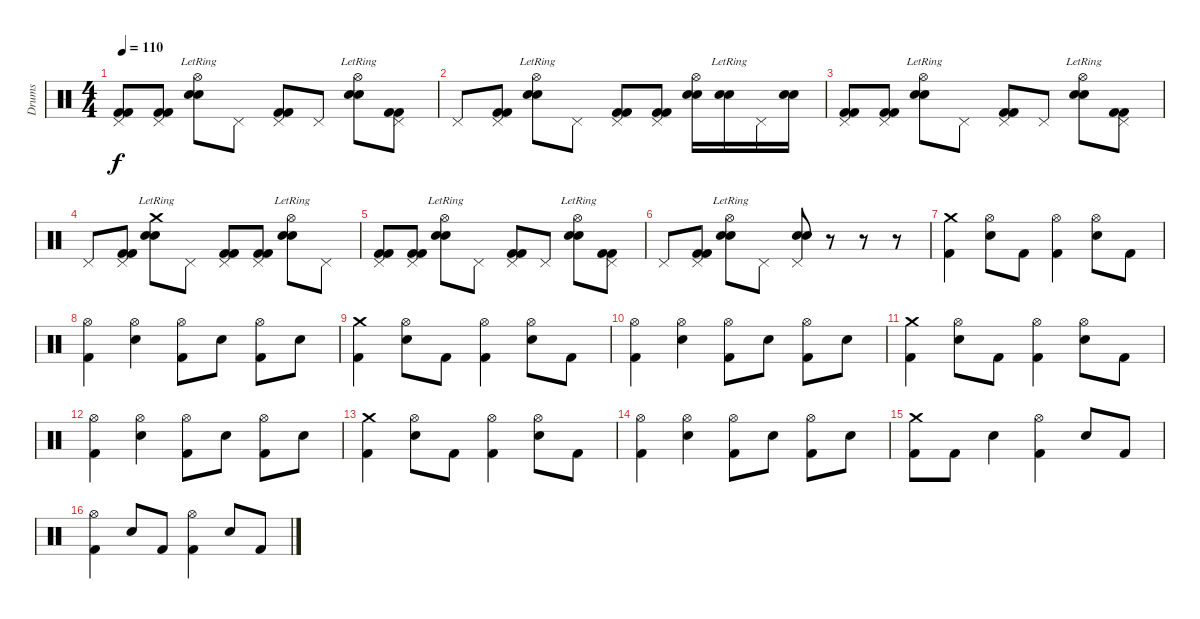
\track ("Drums" "Drums") {instrument percussion}
\staff {score}
\articulation defaults
\ts (4 4)
\tempo 110
\clef neutral
\ks c
("Pedal Hi-Hat (hit)" "Kick (hit) 2" "Kick (hit) 2").8{dy f} ("Pedal Hi-Hat (hit)" "Kick (hit) 2" "Kick (hit) 2").8 ("Hi-Hat (open)" "Electric Snare (hit)"{lr} "Snare (hit) 2").8 "Pedal Hi-Hat (hit)".8 ("Pedal Hi-Hat (hit)" "Kick (hit) 2" "Kick (hit) 2").8 "Pedal Hi-Hat (hit)".8 ("Hi-Hat (open)" "Electric Snare (hit)"{lr} "Snare (hit) 2").8 ("Pedal Hi-Hat (hit)" "Kick (hit) 2" "Kick (hit) 2").8 |
"Pedal Hi-Hat (hit)".8 ("Pedal Hi-Hat (hit)" "Kick (hit) 2" "Kick (hit) 2").8 ("Hi-Hat (open)" "Electric Snare (hit)"{lr} "Snare (hit) 2").8 "Pedal Hi-Hat (hit)".8 ("Pedal Hi-Hat (hit)" "Kick (hit) 2" "Kick (hit) 2").8 ("Pedal Hi-Hat (hit)" "Kick (hit) 2" "Kick (hit) 2").8 ("Hi-Hat (open)" "Electric Snare (hit)" "Snare (hit) 2").16 ("Electric Snare (hit)"{lr} "Snare (hit) 2").16 "Pedal Hi-Hat (hit)".16 ("Electric Snare (hit)" "Snare (hit) 2").16 |
("Pedal Hi-Hat (hit)" "Kick (hit) 2" "Kick (hit) 2").8 ("Pedal Hi-Hat (hit)" "Kick (hit) 2" "Kick (hit) 2").8 ("Hi-Hat (open)" "Electric Snare (hit)"{lr} "Snare (hit) 2").8 "Pedal Hi-Hat (hit)".8 ("Pedal Hi-Hat (hit)" "Kick (hit) 2" "Kick (hit) 2").8 "Pedal Hi-Hat (hit)".8 ("Hi-Hat (open)" "Electric Snare (hit)"{lr} "Snare (hit) 2").8 ("Pedal Hi-Hat (hit)" "Kick (hit) 2" "Kick (hit) 2").8 |
"Pedal Hi-Hat (hit)".8 ("Pedal Hi-Hat (hit)" "Kick (hit) 2" "Kick (hit) 2").8 ("Crash medium (hit)" "Electric Snare (hit)"{lr} "Snare (hit) 2").8 "Pedal Hi-Hat (hit)".8 ("Pedal Hi-Hat (hit)" "Kick (hit) 2" "Kick (hit) 2").8 ("Pedal Hi-Hat (hit)" "Kick (hit) 2" "Kick (hit) 2").8 ("Hi-Hat (open)" "Electric Snare (hit)"{lr} "Snare (hit) 2").8 "Pedal Hi-Hat (hit)".8 |
("Pedal Hi-Hat (hit)" "Kick (hit) 2" "Kick (hit) 2").8 ("Pedal Hi-Hat (hit)" "Kick (hit) 2" "Kick (hit) 2").8 ("Hi-Hat (open)" "Electric Snare (hit)"{lr} "Snare (hit) 2").8 "Pedal Hi-Hat (hit)".8 ("Pedal Hi-Hat (hit)" "Kick (hit) 2" "Kick (hit) 2").8 "Pedal Hi-Hat (hit)".8 ("Hi-Hat (open)" "Electric Snare (hit)"{lr} "Snare (hit) 2").8 ("Pedal Hi-Hat (hit)" "Kick (hit) 2" "Kick (hit) 2").8 |
"Pedal Hi-Hat (hit)".8 ("Pedal Hi-Hat (hit)" "Kick (hit) 2" "Kick (hit) 2").8 ("Hi-Hat (open)" "Electric Snare (hit)"{lr} "Snare (hit) 2").8 "Pedal Hi-Hat (hit)".8 ("Pedal Hi-Hat (hit)" "Electric Snare (hit)" "Snare (hit) 2").8 r.8 r.8 r.8 |
("Crash medium (hit)" "Kick (hit) 2").4 ("Hi-Hat (open)" "Electric Snare (hit)").8 "Kick (hit) 2".8 ("Hi-Hat (open)" "Kick (hit) 2").4 ("Hi-Hat (open)" "Electric Snare (hit)").8 "Kick (hit) 2".8 |
("Hi-Hat (open)" "Kick (hit) 2").4 ("Hi-Hat (open)" "Electric Snare (hit)").4 ("Hi-Hat (open)" "Kick (hit) 2").8 "Electric Snare (hit)".8 ("Hi-Hat (open)" "Kick (hit) 2").8 "Electric Snare (hit)".8 |
("Crash medium (hit)" "Kick (hit) 2").4 ("Hi-Hat (open)" "Electric Snare (hit)").8 "Kick (hit) 2".8 ("Hi-Hat (open)" "Kick (hit) 2").4 ("Hi-Hat (open)" "Electric Snare (hit)").8 "Kick (hit) 2".8 |
("Hi-Hat (open)" "Kick (hit) 2").4 ("Hi-Hat (open)" "Electric Snare (hit)").4 ("Hi-Hat (open)" "Kick (hit) 2").8 "Electric Snare (hit)".8 ("Hi-Hat (open)" "Kick (hit) 2").8 "Electric Snare (hit)".8 |
("Crash medium (hit)" "Kick (hit) 2").4 ("Hi-Hat (open)" "Electric Snare (hit)").8 "Kick (hit) 2".8 ("Hi-Hat (open)" "Kick (hit) 2").4 ("Hi-Hat (open)" "Electric Snare (hit)").8 "Kick (hit) 2".8 |
("Hi-Hat (open)" "Kick (hit) 2").4 ("Hi-Hat (open)" "Electric Snare (hit)").4 ("Hi-Hat (open)" "Kick (hit) 2").8 "Electric Snare (hit)".8 ("Hi-Hat (open)" "Kick (hit) 2").8 "Electric Snare (hit)".8 |
("Crash medium (hit)" "Kick (hit) 2").4 ("Hi-Hat (open)" "Electric Snare (hit)").8 "Kick (hit) 2".8 ("Hi-Hat (open)" "Kick (hit) 2").4 ("Hi-Hat (open)" "Electric Snare (hit)").8 "Kick (hit) 2".8 |
("Hi-Hat (open)" "Kick (hit) 2").4 ("Hi-Hat (open)" "Electric Snare (hit)").4 ("Hi-Hat (open)" "Kick (hit) 2").8 "Electric Snare (hit)".8 ("Hi-Hat (open)" "Kick (hit) 2").8 "Electric Snare (hit)".8 |
("Crash medium (hit)" "Kick (hit) 2").8 "Kick (hit) 2".8 "Electric Snare (hit)".4 ("Hi-Hat (open)" "Kick (hit) 2").4 "Electric Snare (hit)".8 "Kick (hit) 2".8 |
("Hi-Hat (open)" "Kick (hit) 2").4 "Electric Snare (hit)".8 "Kick (hit) 2".8 ("Hi-Hat (open)" "Kick (hit) 2").4 "Electric Snare (hit)".8 "Kick (hit) 2".8
